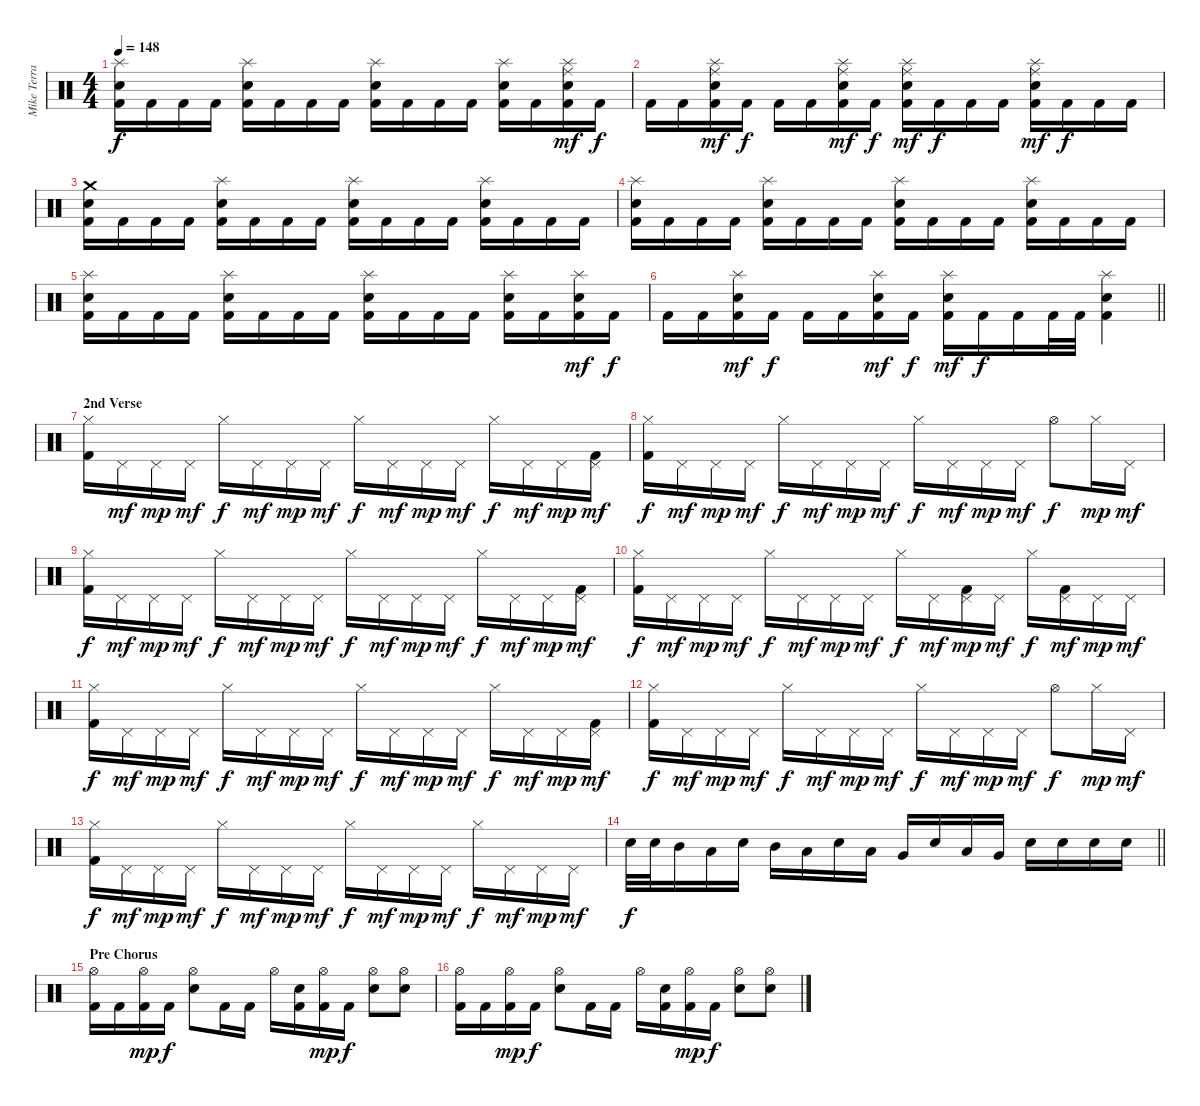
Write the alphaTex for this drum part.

\track ("Mike Terrana" "Mike Terra") {instrument percussion}
\staff {score}
\articulation defaults
\ts (4 4)
\tempo 148
\clef neutral
\ks c
("Splash (hit)" "Snare (hit) 2" "Kick (hit) 2").16{dy f} "Kick (hit) 2".16 "Kick (hit) 2".16 "Kick (hit) 2".16 ("Splash (hit)" "Snare (hit) 2" "Kick (hit) 2").16 "Kick (hit) 2".16 "Kick (hit) 2".16 "Kick (hit) 2".16 ("Splash (hit)" "Snare (hit) 2" "Kick (hit) 2").16 "Kick (hit) 2".16 "Kick (hit) 2".16 "Kick (hit) 2".16 ("Splash (hit)" "Snare (hit) 2" "Kick (hit) 2").16 "Kick (hit) 2".16 ("Splash (hit)" "Ride (middle)" "Snare (hit) 2" "Kick (hit) 2").16{dy mf} "Kick (hit) 2".16{dy f} |
"Kick (hit) 2".16 "Kick (hit) 2".16 ("Splash (hit)" "Ride (middle)" "Snare (hit) 2" "Kick (hit) 2").16{dy mf} "Kick (hit) 2".16{dy f} "Kick (hit) 2".16 "Kick (hit) 2".16 ("Splash (hit)" "Ride (middle)" "Snare (hit) 2" "Kick (hit) 2").16{dy mf} "Kick (hit) 2".16{dy f} ("Splash (hit)" "Ride (middle)" "Snare (hit) 2" "Kick (hit) 2").16{dy mf} "Kick (hit) 2".16{dy f} "Kick (hit) 2".16 "Kick (hit) 2".16 ("Splash (hit)" "Ride (middle)" "Snare (hit) 2" "Kick (hit) 2").16{dy mf} "Kick (hit) 2".16{dy f} "Kick (hit) 2".16 "Kick (hit) 2".16 |
("Crash medium (hit)" "Snare (hit) 2" "Kick (hit) 2").16 "Kick (hit) 2".16 "Kick (hit) 2".16 "Kick (hit) 2".16 ("Splash (hit)" "Snare (hit) 2" "Kick (hit) 2").16 "Kick (hit) 2".16 "Kick (hit) 2".16 "Kick (hit) 2".16 ("Splash (hit)" "Snare (hit) 2" "Kick (hit) 2").16 "Kick (hit) 2".16 "Kick (hit) 2".16 "Kick (hit) 2".16 ("Splash (hit)" "Snare (hit) 2" "Kick (hit) 2").16 "Kick (hit) 2".16 "Kick (hit) 2".16 "Kick (hit) 2".16 |
("Splash (hit)" "Snare (hit) 2" "Kick (hit) 2").16 "Kick (hit) 2".16 "Kick (hit) 2".16 "Kick (hit) 2".16 ("Splash (hit)" "Snare (hit) 2" "Kick (hit) 2").16 "Kick (hit) 2".16 "Kick (hit) 2".16 "Kick (hit) 2".16 ("Splash (hit)" "Snare (hit) 2" "Kick (hit) 2").16 "Kick (hit) 2".16 "Kick (hit) 2".16 "Kick (hit) 2".16 ("Splash (hit)" "Snare (hit) 2" "Kick (hit) 2").16 "Kick (hit) 2".16 "Kick (hit) 2".16 "Kick (hit) 2".16 |
("Splash (hit)" "Snare (hit) 2" "Kick (hit) 2").16 "Kick (hit) 2".16 "Kick (hit) 2".16 "Kick (hit) 2".16 ("Splash (hit)" "Snare (hit) 2" "Kick (hit) 2").16 "Kick (hit) 2".16 "Kick (hit) 2".16 "Kick (hit) 2".16 ("Splash (hit)" "Snare (hit) 2" "Kick (hit) 2").16 "Kick (hit) 2".16 "Kick (hit) 2".16 "Kick (hit) 2".16 ("Splash (hit)" "Snare (hit) 2" "Kick (hit) 2").16 "Kick (hit) 2".16 ("Splash (hit)" "Snare (hit) 2" "Kick (hit) 2").16{dy mf} "Kick (hit) 2".16{dy f} |
\barLineRight lightlight "Kick (hit) 2".16 "Kick (hit) 2".16
("Splash (hit)" "Snare (hit) 2" "Kick (hit) 2").16{dy mf} "Kick (hit) 2".16{dy f} "Kick (hit) 2".16 "Kick (hit) 2".16 ("Splash (hit)" "Snare (hit) 2" "Kick (hit) 2").16{dy mf} "Kick (hit) 2".16{dy f} ("Splash (hit)" "Snare (hit) 2" "Kick (hit) 2").16{dy mf} "Kick (hit) 2".16{dy f} "Kick (hit) 2".16 "Kick (hit) 2".32 "Kick (hit) 2".32 ("Splash (hit)" "Snare (hit) 2" "Kick (hit) 2").4 |
\section ("" "2nd Verse")
("Hi-Hat (closed)" "Kick (hit) 2").16 "Pedal Hi-Hat (hit)".16{dy mf} "Pedal Hi-Hat (hit)".16{dy mp} "Pedal Hi-Hat (hit)".16{dy mf} "Hi-Hat (closed)".16{dy f} "Pedal Hi-Hat (hit)".16{dy mf} "Pedal Hi-Hat (hit)".16{dy mp} "Pedal Hi-Hat (hit)".16{dy mf} "Hi-Hat (closed)".16{dy f} "Pedal Hi-Hat (hit)".16{dy mf} "Pedal Hi-Hat (hit)".16{dy mp} "Pedal Hi-Hat (hit)".16{dy mf} "Hi-Hat (closed)".16{dy f} "Pedal Hi-Hat (hit)".16{dy mf} "Pedal Hi-Hat (hit)".16{dy mp} ("Pedal Hi-Hat (hit)" "Kick (hit) 2").16{dy mf} |
("Hi-Hat (closed)" "Kick (hit) 2").16{dy f} "Pedal Hi-Hat (hit)".16{dy mf} "Pedal Hi-Hat (hit)".16{dy mp} "Pedal Hi-Hat (hit)".16{dy mf} "Hi-Hat (closed)".16{dy f} "Pedal Hi-Hat (hit)".16{dy mf} "Pedal Hi-Hat (hit)".16{dy mp} "Pedal Hi-Hat (hit)".16{dy mf} "Hi-Hat (closed)".16{dy f} "Pedal Hi-Hat (hit)".16{dy mf} "Pedal Hi-Hat (hit)".16{dy mp} "Pedal Hi-Hat (hit)".16{dy mf} "Hi-Hat (open)".8{dy f} "Hi-Hat (closed)".16{dy mp} "Pedal Hi-Hat (hit)".16{dy mf} |
("Hi-Hat (closed)" "Kick (hit) 2").16{dy f} "Pedal Hi-Hat (hit)".16{dy mf} "Pedal Hi-Hat (hit)".16{dy mp} "Pedal Hi-Hat (hit)".16{dy mf} "Hi-Hat (closed)".16{dy f} "Pedal Hi-Hat (hit)".16{dy mf} "Pedal Hi-Hat (hit)".16{dy mp} "Pedal Hi-Hat (hit)".16{dy mf} "Hi-Hat (closed)".16{dy f} "Pedal Hi-Hat (hit)".16{dy mf} "Pedal Hi-Hat (hit)".16{dy mp} "Pedal Hi-Hat (hit)".16{dy mf} "Hi-Hat (closed)".16{dy f} "Pedal Hi-Hat (hit)".16{dy mf} "Pedal Hi-Hat (hit)".16{dy mp} ("Pedal Hi-Hat (hit)" "Kick (hit) 2").16{dy mf} |
("Hi-Hat (closed)" "Kick (hit) 2").16{dy f} "Pedal Hi-Hat (hit)".16{dy mf} "Pedal Hi-Hat (hit)".16{dy mp} "Pedal Hi-Hat (hit)".16{dy mf} "Hi-Hat (closed)".16{dy f} "Pedal Hi-Hat (hit)".16{dy mf} "Pedal Hi-Hat (hit)".16{dy mp} "Pedal Hi-Hat (hit)".16{dy mf} "Hi-Hat (closed)".16{dy f} "Pedal Hi-Hat (hit)".16{dy mf} ("Pedal Hi-Hat (hit)" "Kick (hit) 2").16{dy mp} "Pedal Hi-Hat (hit)".16{dy mf} "Hi-Hat (closed)".16{dy f} ("Pedal Hi-Hat (hit)" "Kick (hit) 2").16{dy mf} "Pedal Hi-Hat (hit)".16{dy mp} "Pedal Hi-Hat (hit)".16{dy mf} |
("Hi-Hat (closed)" "Kick (hit) 2").16{dy f} "Pedal Hi-Hat (hit)".16{dy mf} "Pedal Hi-Hat (hit)".16{dy mp} "Pedal Hi-Hat (hit)".16{dy mf} "Hi-Hat (closed)".16{dy f} "Pedal Hi-Hat (hit)".16{dy mf} "Pedal Hi-Hat (hit)".16{dy mp} "Pedal Hi-Hat (hit)".16{dy mf} "Hi-Hat (closed)".16{dy f} "Pedal Hi-Hat (hit)".16{dy mf} "Pedal Hi-Hat (hit)".16{dy mp} "Pedal Hi-Hat (hit)".16{dy mf} "Hi-Hat (closed)".16{dy f} "Pedal Hi-Hat (hit)".16{dy mf} "Pedal Hi-Hat (hit)".16{dy mp} ("Pedal Hi-Hat (hit)" "Kick (hit) 2").16{dy mf} |
("Hi-Hat (closed)" "Kick (hit) 2").16{dy f} "Pedal Hi-Hat (hit)".16{dy mf} "Pedal Hi-Hat (hit)".16{dy mp} "Pedal Hi-Hat (hit)".16{dy mf} "Hi-Hat (closed)".16{dy f} "Pedal Hi-Hat (hit)".16{dy mf} "Pedal Hi-Hat (hit)".16{dy mp} "Pedal Hi-Hat (hit)".16{dy mf} "Hi-Hat (closed)".16{dy f} "Pedal Hi-Hat (hit)".16{dy mf} "Pedal Hi-Hat (hit)".16{dy mp} "Pedal Hi-Hat (hit)".16{dy mf} "Hi-Hat (open)".8{dy f} "Hi-Hat (closed)".16{dy mp} "Pedal Hi-Hat (hit)".16{dy mf} |
("Hi-Hat (closed)" "Kick (hit) 2").16{dy f} "Pedal Hi-Hat (hit)".16{dy mf} "Pedal Hi-Hat (hit)".16{dy mp} "Pedal Hi-Hat (hit)".16{dy mf} "Hi-Hat (closed)".16{dy f} "Pedal Hi-Hat (hit)".16{dy mf} "Pedal Hi-Hat (hit)".16{dy mp} "Pedal Hi-Hat (hit)".16{dy mf} "Hi-Hat (closed)".16{dy f} "Pedal Hi-Hat (hit)".16{dy mf} "Pedal Hi-Hat (hit)".16{dy mp} "Pedal Hi-Hat (hit)".16{dy mf} "Hi-Hat (closed)".16{dy f} "Pedal Hi-Hat (hit)".16{dy mf} "Pedal Hi-Hat (hit)".16{dy mp} "Pedal Hi-Hat (hit)".16{dy mf} |
\barLineRight lightlight "Snare (hit) 2".32{dy f} "Snare (hit) 2".32 "Mid Tom (hit)".16 "Low Tom (hit)".16 "Snare (hit) 2".16 "Mid Tom (hit)".16 "Low Tom (hit)".16 "Snare (hit) 2".16 "Low Tom (hit)".16 "Very Low Tom (hit)".16 "Snare (hit) 2".16 "Low Tom (hit)".16 "Very Low Tom (hit)".16 "Snare (hit) 2".16 "Snare (hit) 2".16 "Snare (hit) 2".16 "Snare (hit) 2".16
|
\section ("" "Pre Chorus")
("Hi-Hat (open)" "Kick (hit) 2").16 "Kick (hit) 2".16 ("Hi-Hat (open)" "Kick (hit) 2").16{dy mp} "Kick (hit) 2".16{dy f} ("Hi-Hat (open)" "Snare (hit) 2").8 "Kick (hit) 2".16 "Kick (hit) 2".16 "Hi-Hat (open)".16 ("Snare (hit) 2" "Kick (hit) 2").16 ("Hi-Hat (open)" "Kick (hit) 2").16{dy mp} "Kick (hit) 2".16{dy f} ("Hi-Hat (open)" "Snare (hit) 2").8 ("Hi-Hat (open)" "Snare (hit) 2").8 |
("Hi-Hat (open)" "Kick (hit) 2").16 "Kick (hit) 2".16 ("Hi-Hat (open)" "Kick (hit) 2").16{dy mp} "Kick (hit) 2".16{dy f} ("Hi-Hat (open)" "Snare (hit) 2").8 "Kick (hit) 2".16 "Kick (hit) 2".16 "Hi-Hat (open)".16 ("Snare (hit) 2" "Kick (hit) 2").16 ("Hi-Hat (open)" "Kick (hit) 2").16{dy mp} "Kick (hit) 2".16{dy f} ("Hi-Hat (open)" "Snare (hit) 2").8 ("Hi-Hat (open)" "Snare (hit) 2").8
